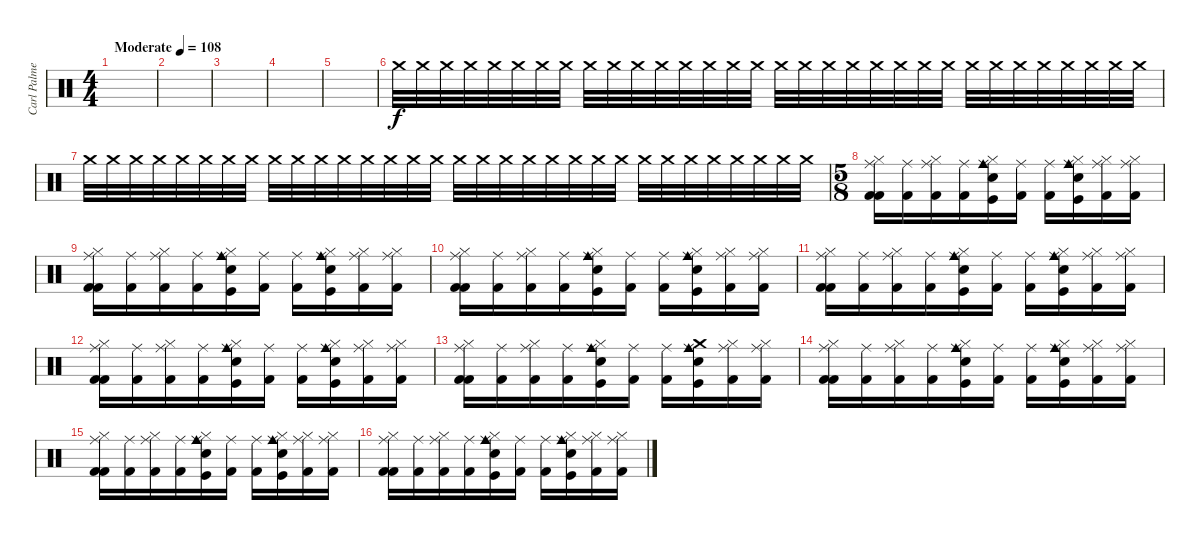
\track ("Carl Palmer (Percussion)" "Carl Palme") {instrument percussion}
\staff {score}
\articulation defaults
\ts (4 4)
\tempo (108 "Moderate")
\clef neutral
\ks c
|
|
|
|
|
"Crash medium (hit)".32{volume 1 balance 4} "Crash medium (hit)".32{volume 1} "Crash medium (hit)".32{volume 2} "Crash medium (hit)".32{volume 2} "Crash medium (hit)".32{volume 3} "Crash medium (hit)".32{volume 3} "Crash medium (hit)".32{volume 4} "Crash medium (hit)".32{volume 4} "Crash medium (hit)".32{volume 5} "Crash medium (hit)".32{volume 5} "Crash medium (hit)".32{volume 6} "Crash medium (hit)".32{volume 6} "Crash medium (hit)".32{volume 7} "Crash medium (hit)".32{volume 7} "Crash medium (hit)".32{volume 8} "Crash medium (hit)".32{volume 8} "Crash medium (hit)".32{volume 9 balance 5} "Crash medium (hit)".32{volume 9} "Crash medium (hit)".32{volume 10} "Crash medium (hit)".32{volume 10} "Crash medium (hit)".32{volume 11 balance 6} "Crash medium (hit)".32{volume 11} "Crash medium (hit)".32{volume 12} "Crash medium (hit)".32{volume 12} "Crash medium (hit)".32{volume 13 balance 7} "Crash medium (hit)".32{volume 13} "Crash medium (hit)".32{volume 14} "Crash medium (hit)".32{volume 14 balance 8} "Crash medium (hit)".32{volume 15} "Crash medium (hit)".32{volume 15} "Crash medium (hit)".32{volume 16} "Crash medium (hit)".32{volume 16} |
"Crash medium (hit)".32 "Crash medium (hit)".32 "Crash medium (hit)".32 "Crash medium (hit)".32 "Crash medium (hit)".32 "Crash medium (hit)".32 "Crash medium (hit)".32 "Crash medium (hit)".32 "Crash medium (hit)".32 "Crash medium (hit)".32 "Crash medium (hit)".32 "Crash medium (hit)".32 "Crash medium (hit)".32 "Crash medium (hit)".32 "Crash medium (hit)".32 "Crash medium (hit)".32 "Crash medium (hit)".32 "Crash medium (hit)".32 "Crash medium (hit)".32 "Crash medium (hit)".32 "Crash medium (hit)".32 "Crash medium (hit)".32 "Crash medium (hit)".32 "Crash medium (hit)".32 "Crash medium (hit)".32 "Crash medium (hit)".32 "Crash medium (hit)".32 "Crash medium (hit)".32 "Crash medium (hit)".32 "Crash medium (hit)".32 "Crash medium (hit)".32 "Crash medium (hit)".32 |
\ts (5 8)
("Hi-Hat (closed)" "Kick (hit) 2" "Kick (hit) 2" "Ride (middle)").16 ("Ride (middle)" "Kick (hit) 2").16 ("Hi-Hat (closed)" "Ride (middle)" "Kick (hit) 2").16 ("Ride (middle)" "Kick (hit) 2").16 ("Hi-Hat (closed)" "Electric Snare (hit)" "Kick (hit)" "Cowbell medium (hit)" "Ride (middle)").16 ("Ride (middle)" "Kick (hit) 2").16 ("Ride (middle)" "Kick (hit) 2").16 ("Hi-Hat (closed)" "Snare (hit) 2" "Kick (hit)" "Cowbell medium (hit)" "Ride (middle)").16 ("Hi-Hat (closed)" "Ride (middle)" "Kick (hit) 2").16 ("Hi-Hat (closed)" "Ride (middle)" "Kick (hit) 2").16 |
("Hi-Hat (closed)" "Kick (hit) 2" "Kick (hit) 2" "Ride (middle)").16 ("Ride (middle)" "Kick (hit) 2").16 ("Hi-Hat (closed)" "Ride (middle)" "Kick (hit) 2").16 ("Ride (middle)" "Kick (hit) 2").16 ("Hi-Hat (closed)" "Electric Snare (hit)" "Kick (hit)" "Cowbell medium (hit)" "Ride (middle)").16 ("Ride (middle)" "Kick (hit) 2").16 ("Ride (middle)" "Kick (hit) 2").16 ("Hi-Hat (closed)" "Snare (hit) 2" "Kick (hit)" "Cowbell medium (hit)" "Ride (middle)").16 ("Hi-Hat (closed)" "Ride (middle)" "Kick (hit) 2").16 ("Hi-Hat (closed)" "Ride (middle)" "Kick (hit) 2").16 |
("Hi-Hat (closed)" "Kick (hit) 2" "Kick (hit) 2" "Ride (middle)").16 ("Ride (middle)" "Kick (hit) 2").16 ("Hi-Hat (closed)" "Ride (middle)" "Kick (hit) 2").16 ("Ride (middle)" "Kick (hit) 2").16 ("Hi-Hat (closed)" "Electric Snare (hit)" "Kick (hit)" "Cowbell medium (hit)" "Ride (middle)").16 ("Ride (middle)" "Kick (hit) 2").16 ("Ride (middle)" "Kick (hit) 2").16 ("Hi-Hat (closed)" "Snare (hit) 2" "Kick (hit)" "Cowbell medium (hit)" "Ride (middle)").16 ("Hi-Hat (closed)" "Ride (middle)" "Kick (hit) 2").16 ("Hi-Hat (closed)" "Ride (middle)" "Kick (hit) 2").16 |
("Hi-Hat (closed)" "Kick (hit) 2" "Kick (hit) 2" "Ride (middle)").16 ("Ride (middle)" "Kick (hit) 2").16 ("Hi-Hat (closed)" "Ride (middle)" "Kick (hit) 2").16 ("Ride (middle)" "Kick (hit) 2").16 ("Hi-Hat (closed)" "Electric Snare (hit)" "Kick (hit)" "Cowbell medium (hit)" "Ride (middle)").16 ("Ride (middle)" "Kick (hit) 2").16 ("Ride (middle)" "Kick (hit) 2").16 ("Hi-Hat (closed)" "Snare (hit) 2" "Kick (hit)" "Cowbell medium (hit)" "Ride (middle)").16 ("Hi-Hat (closed)" "Ride (middle)" "Kick (hit) 2").16 ("Hi-Hat (closed)" "Ride (middle)" "Kick (hit) 2").16 |
("Hi-Hat (closed)" "Kick (hit) 2" "Kick (hit) 2" "Ride (middle)").16 ("Ride (middle)" "Kick (hit) 2").16 ("Hi-Hat (closed)" "Ride (middle)" "Kick (hit) 2").16 ("Ride (middle)" "Kick (hit) 2").16 ("Hi-Hat (closed)" "Electric Snare (hit)" "Kick (hit)" "Cowbell medium (hit)" "Ride (middle)").16 ("Ride (middle)" "Kick (hit) 2").16 ("Ride (middle)" "Kick (hit) 2").16 ("Hi-Hat (closed)" "Snare (hit) 2" "Kick (hit)" "Cowbell medium (hit)" "Ride (middle)").16 ("Hi-Hat (closed)" "Ride (middle)" "Kick (hit) 2").16 ("Hi-Hat (closed)" "Ride (middle)" "Kick (hit) 2").16 |
("Hi-Hat (closed)" "Kick (hit) 2" "Kick (hit) 2" "Ride (middle)").16 ("Ride (middle)" "Kick (hit) 2").16 ("Hi-Hat (closed)" "Ride (middle)" "Kick (hit) 2").16 ("Ride (middle)" "Kick (hit) 2").16 ("Hi-Hat (closed)" "Electric Snare (hit)" "Kick (hit)" "Cowbell medium (hit)" "Ride (middle)").16 ("Ride (middle)" "Kick (hit) 2").16 ("Ride (middle)" "Kick (hit) 2").16 ("Crash medium (hit)" "Snare (hit) 2" "Kick (hit)" "Cowbell medium (hit)" "Ride (middle)").16 ("Hi-Hat (closed)" "Ride (middle)" "Kick (hit) 2").16 ("Hi-Hat (closed)" "Ride (middle)" "Kick (hit) 2").16 |
("Hi-Hat (closed)" "Kick (hit) 2" "Kick (hit) 2" "Ride (middle)").16 ("Ride (middle)" "Kick (hit) 2").16 ("Hi-Hat (closed)" "Ride (middle)" "Kick (hit) 2").16 ("Ride (middle)" "Kick (hit) 2").16 ("Hi-Hat (closed)" "Electric Snare (hit)" "Kick (hit)" "Cowbell medium (hit)" "Ride (middle)").16 ("Ride (middle)" "Kick (hit) 2").16 ("Ride (middle)" "Kick (hit) 2").16 ("Hi-Hat (closed)" "Snare (hit) 2" "Kick (hit)" "Cowbell medium (hit)" "Ride (middle)").16 ("Hi-Hat (closed)" "Ride (middle)" "Kick (hit) 2").16 ("Hi-Hat (closed)" "Ride (middle)" "Kick (hit) 2").16 |
("Hi-Hat (closed)" "Kick (hit) 2" "Kick (hit) 2" "Ride (middle)").16 ("Ride (middle)" "Kick (hit) 2").16 ("Hi-Hat (closed)" "Ride (middle)" "Kick (hit) 2").16 ("Ride (middle)" "Kick (hit) 2").16 ("Hi-Hat (closed)" "Electric Snare (hit)" "Kick (hit)" "Cowbell medium (hit)" "Ride (middle)").16 ("Ride (middle)" "Kick (hit) 2").16 ("Ride (middle)" "Kick (hit) 2").16 ("Hi-Hat (closed)" "Snare (hit) 2" "Kick (hit)" "Cowbell medium (hit)" "Ride (middle)").16 ("Hi-Hat (closed)" "Ride (middle)" "Kick (hit) 2").16 ("Hi-Hat (closed)" "Ride (middle)" "Kick (hit) 2").16 |
("Hi-Hat (closed)" "Kick (hit) 2" "Kick (hit) 2" "Ride (middle)").16 ("Ride (middle)" "Kick (hit) 2").16 ("Hi-Hat (closed)" "Ride (middle)" "Kick (hit) 2").16 ("Ride (middle)" "Kick (hit) 2").16 ("Hi-Hat (closed)" "Electric Snare (hit)" "Kick (hit)" "Cowbell medium (hit)" "Ride (middle)").16 ("Ride (middle)" "Kick (hit) 2").16 ("Ride (middle)" "Kick (hit) 2").16 ("Hi-Hat (closed)" "Snare (hit) 2" "Kick (hit)" "Cowbell medium (hit)" "Ride (middle)").16 ("Hi-Hat (closed)" "Ride (middle)" "Kick (hit) 2").16 ("Hi-Hat (closed)" "Ride (middle)" "Kick (hit) 2").16
